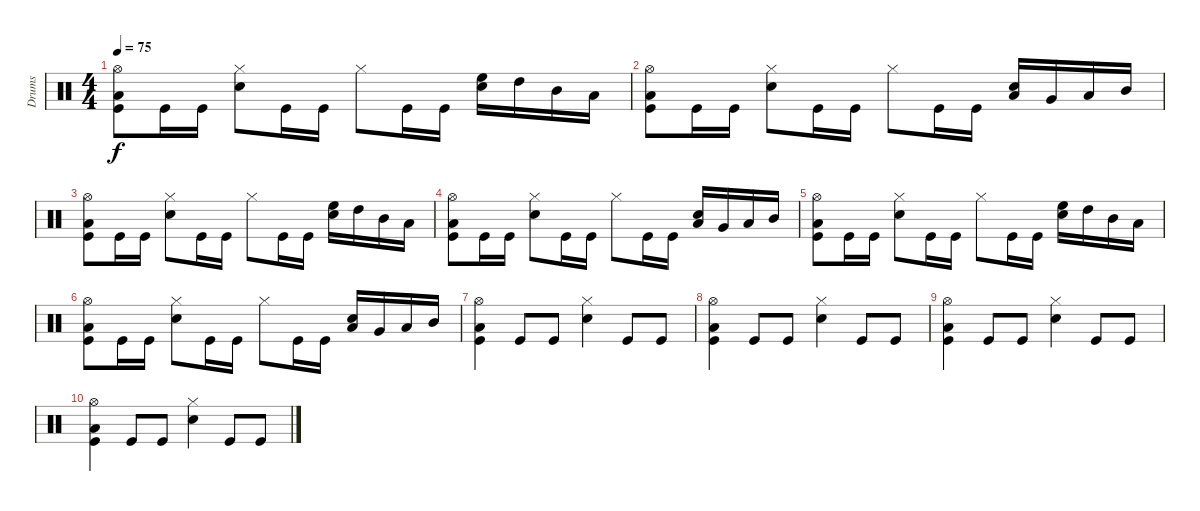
\track ("Drums" "Drums") {instrument percussion}
\staff {score}
\articulation defaults
\ts (4 4)
\tempo 75
\clef neutral
\ks c
("Hi-Hat (open)" "Low Tom (hit)" "Kick (hit)").8{dy f} "Kick (hit)".16 "Kick (hit)".16 ("Hi-Hat (closed)" "Snare (hit) 2").8 "Kick (hit)".16 "Kick (hit)".16 "Hi-Hat (closed)".8 "Kick (hit)".16 "Kick (hit)".16 ("Snare (hit) 2" "High Floor Tom (hit)").16 "High Tom (hit)".16 "Mid Tom (hit)".16 "Low Tom (hit)".16 |
("Hi-Hat (open)" "Low Tom (hit)" "Kick (hit)").8 "Kick (hit)".16 "Kick (hit)".16 ("Hi-Hat (closed)" "Snare (hit) 2").8 "Kick (hit)".16 "Kick (hit)".16 "Hi-Hat (closed)".8 "Kick (hit)".16 "Kick (hit)".16 ("Snare (hit) 2" "Low Floor Tom (hit)").16 "Very Low Tom (hit)".16 "Low Tom (hit)".16 "Mid Tom (hit)".16 |
("Hi-Hat (open)" "Low Tom (hit)" "Kick (hit)").8 "Kick (hit)".16 "Kick (hit)".16 ("Hi-Hat (closed)" "Snare (hit) 2").8 "Kick (hit)".16 "Kick (hit)".16 "Hi-Hat (closed)".8 "Kick (hit)".16 "Kick (hit)".16 ("Snare (hit) 2" "High Floor Tom (hit)").16 "High Tom (hit)".16 "Mid Tom (hit)".16 "Low Tom (hit)".16 |
("Hi-Hat (open)" "Low Tom (hit)" "Kick (hit)").8 "Kick (hit)".16 "Kick (hit)".16 ("Hi-Hat (closed)" "Snare (hit) 2").8 "Kick (hit)".16 "Kick (hit)".16 "Hi-Hat (closed)".8 "Kick (hit)".16 "Kick (hit)".16 ("Snare (hit) 2" "Low Floor Tom (hit)").16 "Very Low Tom (hit)".16 "Low Tom (hit)".16 "Mid Tom (hit)".16 |
("Hi-Hat (open)" "Low Tom (hit)" "Kick (hit)").8 "Kick (hit)".16 "Kick (hit)".16 ("Hi-Hat (closed)" "Snare (hit) 2").8 "Kick (hit)".16 "Kick (hit)".16 "Hi-Hat (closed)".8 "Kick (hit)".16 "Kick (hit)".16 ("Snare (hit) 2" "High Floor Tom (hit)").16 "High Tom (hit)".16 "Mid Tom (hit)".16 "Low Tom (hit)".16 |
("Hi-Hat (open)" "Low Tom (hit)" "Kick (hit)").8 "Kick (hit)".16 "Kick (hit)".16 ("Hi-Hat (closed)" "Snare (hit) 2").8 "Kick (hit)".16 "Kick (hit)".16 "Hi-Hat (closed)".8 "Kick (hit)".16 "Kick (hit)".16 ("Snare (hit) 2" "Low Floor Tom (hit)").16 "Very Low Tom (hit)".16 "Low Tom (hit)".16 "Mid Tom (hit)".16 |
("Hi-Hat (open)" "Low Tom (hit)" "Kick (hit)").4 "Kick (hit)".8 "Kick (hit)".8 ("Hi-Hat (closed)" "Snare (hit) 2").4 "Kick (hit)".8 "Kick (hit)".8 |
("Hi-Hat (open)" "Low Tom (hit)" "Kick (hit)").4 "Kick (hit)".8 "Kick (hit)".8 ("Hi-Hat (closed)" "Snare (hit) 2").4 "Kick (hit)".8 "Kick (hit)".8 |
("Hi-Hat (open)" "Low Tom (hit)" "Kick (hit)").4{volume 7} "Kick (hit)".8 "Kick (hit)".8 ("Hi-Hat (closed)" "Snare (hit) 2").4 "Kick (hit)".8 "Kick (hit)".8 |
("Hi-Hat (open)" "Low Tom (hit)" "Kick (hit)").4{volume 1} "Kick (hit)".8 "Kick (hit)".8 ("Hi-Hat (closed)" "Snare (hit) 2").4 "Kick (hit)".8 "Kick (hit)".8
